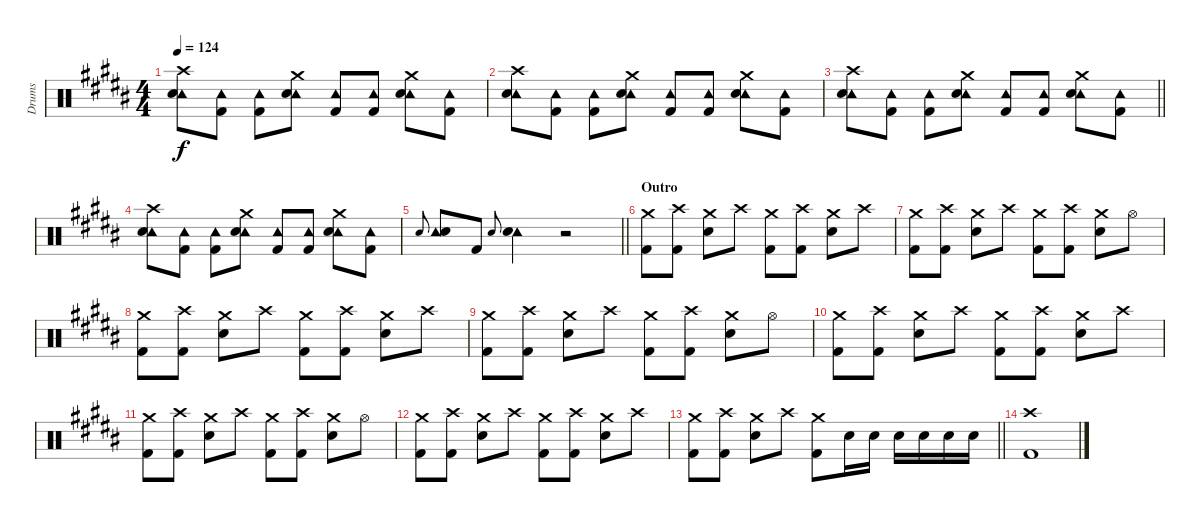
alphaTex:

\track ("Drums" "Drums") {instrument percussion}
\staff {score}
\articulation defaults
\ts (4 4)
\tempo 124
\clef neutral
\ks b
("Crash high (hit)" "Tambourine (hit)" "Snare (hit) 2").8{dy f} ("Tambourine (hit)" "Kick (hit) 2").8 ("Tambourine (hit)" "Kick (hit) 2").8 ("Crash medium (hit)" "Tambourine (hit)" "Snare (hit) 2").8 ("Tambourine (hit)" "Kick (hit) 2").8 ("Tambourine (hit)" "Kick (hit) 2").8 ("Crash medium (hit)" "Tambourine (hit)" "Snare (hit) 2").8 ("Tambourine (hit)" "Kick (hit) 2").8 |
("Crash high (hit)" "Tambourine (hit)" "Snare (hit) 2").8 ("Tambourine (hit)" "Kick (hit) 2").8 ("Tambourine (hit)" "Kick (hit) 2").8 ("Crash medium (hit)" "Tambourine (hit)" "Snare (hit) 2").8 ("Tambourine (hit)" "Kick (hit) 2").8 ("Tambourine (hit)" "Kick (hit) 2").8 ("Crash medium (hit)" "Tambourine (hit)" "Snare (hit) 2").8 ("Tambourine (hit)" "Kick (hit) 2").8 |
\barLineRight lightlight
("Crash high (hit)" "Tambourine (hit)" "Snare (hit) 2").8 ("Tambourine (hit)" "Kick (hit) 2").8 ("Tambourine (hit)" "Kick (hit) 2").8 ("Crash medium (hit)" "Tambourine (hit)" "Snare (hit) 2").8 ("Tambourine (hit)" "Kick (hit) 2").8 ("Tambourine (hit)" "Kick (hit) 2").8 ("Crash medium (hit)" "Tambourine (hit)" "Snare (hit) 2").8 ("Tambourine (hit)" "Kick (hit) 2").8 |
("Crash high (hit)" "Tambourine (hit)" "Snare (hit) 2").8 ("Tambourine (hit)" "Kick (hit) 2").8 ("Tambourine (hit)" "Kick (hit) 2").8 ("Crash medium (hit)" "Tambourine (hit)" "Snare (hit) 2").8 ("Tambourine (hit)" "Kick (hit) 2").8 ("Tambourine (hit)" "Kick (hit) 2").8 ("Crash medium (hit)" "Tambourine (hit)" "Snare (hit) 2").8 ("Tambourine (hit)" "Kick (hit) 2").8 |
\barLineRight lightlight "Snare (hit) 2".8{gr onbeat}
("Tambourine (hit)" "Snare (hit) 2").8 "Kick (hit) 2".8 "Snare (hit) 2".8{gr onbeat} ("Tambourine (hit)" "Snare (hit) 2").4 r.2 |
\section ("" "Outro")
("Crash medium (hit)" "Kick (hit) 2").8 ("Crash high (hit)" "Kick (hit) 2").8 ("Crash medium (hit)" "Snare (hit) 2").8 "Crash high (hit)".8 ("Crash medium (hit)" "Kick (hit) 2").8 ("Crash high (hit)" "Kick (hit) 2").8 ("Crash medium (hit)" "Snare (hit) 2").8 "Crash high (hit)".8 |
("Crash medium (hit)" "Kick (hit) 2").8 ("Crash high (hit)" "Kick (hit) 2").8 ("Crash medium (hit)" "Snare (hit) 2").8 "Crash high (hit)".8 ("Crash medium (hit)" "Kick (hit) 2").8 ("Crash high (hit)" "Kick (hit) 2").8 ("Crash medium (hit)" "Snare (hit) 2").8 "Hi-Hat (open)".8 |
("Crash medium (hit)" "Kick (hit) 2").8 ("Crash high (hit)" "Kick (hit) 2").8 ("Crash medium (hit)" "Snare (hit) 2").8 "Crash high (hit)".8 ("Crash medium (hit)" "Kick (hit) 2").8 ("Crash high (hit)" "Kick (hit) 2").8 ("Crash medium (hit)" "Snare (hit) 2").8 "Crash high (hit)".8 |
("Crash medium (hit)" "Kick (hit) 2").8 ("Crash high (hit)" "Kick (hit) 2").8 ("Crash medium (hit)" "Snare (hit) 2").8 "Crash high (hit)".8 ("Crash medium (hit)" "Kick (hit) 2").8 ("Crash high (hit)" "Kick (hit) 2").8 ("Crash medium (hit)" "Snare (hit) 2").8 "Hi-Hat (open)".8 |
("Crash medium (hit)" "Kick (hit) 2").8 ("Crash high (hit)" "Kick (hit) 2").8 ("Crash medium (hit)" "Snare (hit) 2").8 "Crash high (hit)".8 ("Crash medium (hit)" "Kick (hit) 2").8 ("Crash high (hit)" "Kick (hit) 2").8 ("Crash medium (hit)" "Snare (hit) 2").8 "Crash high (hit)".8 |
("Crash medium (hit)" "Kick (hit) 2").8 ("Crash high (hit)" "Kick (hit) 2").8 ("Crash medium (hit)" "Snare (hit) 2").8 "Crash high (hit)".8 ("Crash medium (hit)" "Kick (hit) 2").8 ("Crash high (hit)" "Kick (hit) 2").8 ("Crash medium (hit)" "Snare (hit) 2").8 "Hi-Hat (open)".8 |
("Crash medium (hit)" "Kick (hit) 2").8 ("Crash high (hit)" "Kick (hit) 2").8 ("Crash medium (hit)" "Snare (hit) 2").8 "Crash high (hit)".8 ("Crash medium (hit)" "Kick (hit) 2").8 ("Crash high (hit)" "Kick (hit) 2").8 ("Crash medium (hit)" "Snare (hit) 2").8 "Crash high (hit)".8 |
\barLineRight lightlight
("Crash medium (hit)" "Kick (hit) 2").8 ("Crash high (hit)" "Kick (hit) 2").8 ("Crash medium (hit)" "Snare (hit) 2").8 "Crash high (hit)".8 ("Crash medium (hit)" "Kick (hit) 2").8 "Snare (hit) 2".16 "Snare (hit) 2".16 "Snare (hit) 2".16 "Snare (hit) 2".16 "Snare (hit) 2".16 "Snare (hit) 2".16 |
("Crash high (hit)" "Kick (hit) 2").1
